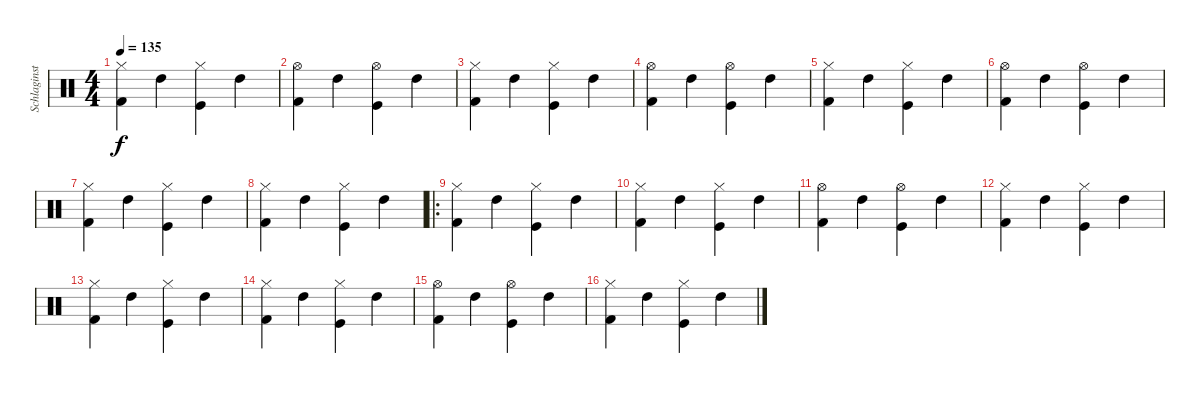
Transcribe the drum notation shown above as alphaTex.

\track ("Schlaginstrumente - Auswahl" "Schlaginst") {instrument percussion}
\staff {score}
\articulation defaults
\ts (4 4)
\tempo 135
\clef neutral
\ks c
("Kick (hit) 2" "Hi-Hat (closed)").4{dy f} "High Tom (hit)".4 ("Kick (hit)" "Hi-Hat (closed)").4 "High Tom (hit)".4 |
("Kick (hit) 2" "Hi-Hat (open)").4 "High Tom (hit)".4 ("Kick (hit)" "Hi-Hat (open)").4 "High Tom (hit)".4 |
("Kick (hit) 2" "Hi-Hat (closed)").4 "High Tom (hit)".4 ("Kick (hit)" "Hi-Hat (closed)").4 "High Tom (hit)".4 |
("Kick (hit) 2" "Hi-Hat (open)").4 "High Tom (hit)".4 ("Kick (hit)" "Hi-Hat (open)").4 "High Tom (hit)".4 |
("Kick (hit) 2" "Hi-Hat (closed)").4 "High Tom (hit)".4 ("Kick (hit)" "Hi-Hat (closed)").4 "High Tom (hit)".4 |
("Kick (hit) 2" "Hi-Hat (open)").4 "High Tom (hit)".4 ("Kick (hit)" "Hi-Hat (open)").4 "High Tom (hit)".4 |
("Kick (hit) 2" "Hi-Hat (closed)").4 "High Tom (hit)".4 ("Kick (hit)" "Hi-Hat (closed)").4 "High Tom (hit)".4 |
("Kick (hit) 2" "Hi-Hat (closed)").4 "High Tom (hit)".4 ("Kick (hit)" "Hi-Hat (closed)").4 "High Tom (hit)".4 |
\ro
("Kick (hit) 2" "Hi-Hat (closed)").4 "High Tom (hit)".4 ("Kick (hit)" "Hi-Hat (closed)").4 "High Tom (hit)".4 |
("Kick (hit) 2" "Hi-Hat (closed)").4 "High Tom (hit)".4 ("Kick (hit)" "Hi-Hat (closed)").4 "High Tom (hit)".4 |
("Kick (hit) 2" "Hi-Hat (open)").4 "High Tom (hit)".4 ("Kick (hit)" "Hi-Hat (open)").4 "High Tom (hit)".4 |
("Kick (hit) 2" "Hi-Hat (closed)").4 "High Tom (hit)".4 ("Kick (hit)" "Hi-Hat (closed)").4 "High Tom (hit)".4 |
("Kick (hit) 2" "Hi-Hat (closed)").4 "High Tom (hit)".4 ("Kick (hit)" "Hi-Hat (closed)").4 "High Tom (hit)".4 |
("Kick (hit) 2" "Hi-Hat (closed)").4 "High Tom (hit)".4 ("Kick (hit)" "Hi-Hat (closed)").4 "High Tom (hit)".4 |
("Kick (hit) 2" "Hi-Hat (open)").4 "High Tom (hit)".4 ("Kick (hit)" "Hi-Hat (open)").4 "High Tom (hit)".4 |
("Kick (hit) 2" "Hi-Hat (closed)").4 "High Tom (hit)".4 ("Kick (hit)" "Hi-Hat (closed)").4 "High Tom (hit)".4
